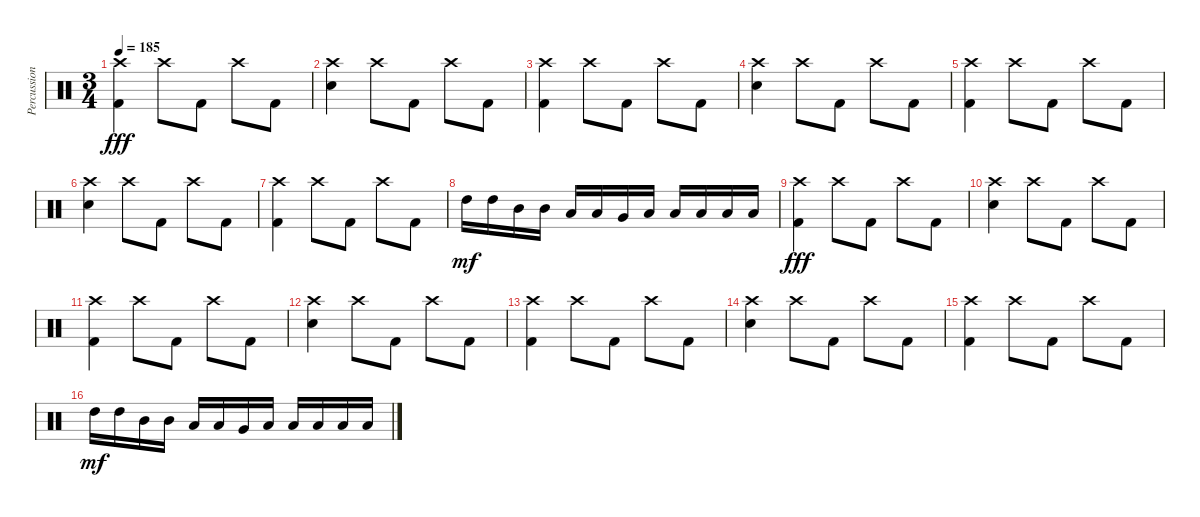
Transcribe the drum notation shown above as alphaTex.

\track ("Percussion" "Percussion") {instrument percussion}
\staff {score}
\articulation defaults
\ts (3 4)
\tempo 185
\clef neutral
\ks c
("Crash high (hit)" "Kick (hit) 2").4{dy fff} "Crash high (hit)".8 "Kick (hit) 2".8 "Crash high (hit)".8 "Kick (hit) 2".8 |
("Crash high (hit)" "Electric Snare (hit)").4 "Crash high (hit)".8 "Kick (hit) 2".8 "Crash high (hit)".8 "Kick (hit) 2".8 |
("Crash high (hit)" "Kick (hit) 2").4 "Crash high (hit)".8 "Kick (hit) 2".8 "Crash high (hit)".8 "Kick (hit) 2".8 |
("Crash high (hit)" "Electric Snare (hit)").4 "Crash high (hit)".8 "Kick (hit) 2".8 "Crash high (hit)".8 "Kick (hit) 2".8 |
("Crash high (hit)" "Kick (hit) 2").4 "Crash high (hit)".8 "Kick (hit) 2".8 "Crash high (hit)".8 "Kick (hit) 2".8 |
("Crash high (hit)" "Electric Snare (hit)").4 "Crash high (hit)".8 "Kick (hit) 2".8 "Crash high (hit)".8 "Kick (hit) 2".8 |
("Crash high (hit)" "Kick (hit) 2").4 "Crash high (hit)".8 "Kick (hit) 2".8 "Crash high (hit)".8 "Kick (hit) 2".8 |
"High Tom (hit)".16{dy mf} "High Tom (hit)".16 "Mid Tom (hit)".16 "Mid Tom (hit)".16 "Low Tom (hit)".16 "Low Tom (hit)".16 "Very Low Tom (hit)".16 "Low Floor Tom (hit)".16 "Low Floor Tom (hit)".16 "Low Floor Tom (hit)".16 "Low Floor Tom (hit)".16 "Low Floor Tom (hit)".16 |
("Crash high (hit)" "Kick (hit) 2").4{dy fff} "Crash high (hit)".8 "Kick (hit) 2".8 "Crash high (hit)".8 "Kick (hit) 2".8 |
("Crash high (hit)" "Electric Snare (hit)").4 "Crash high (hit)".8 "Kick (hit) 2".8 "Crash high (hit)".8 "Kick (hit) 2".8 |
("Crash high (hit)" "Kick (hit) 2").4 "Crash high (hit)".8 "Kick (hit) 2".8 "Crash high (hit)".8 "Kick (hit) 2".8 |
("Crash high (hit)" "Electric Snare (hit)").4 "Crash high (hit)".8 "Kick (hit) 2".8 "Crash high (hit)".8 "Kick (hit) 2".8 |
("Crash high (hit)" "Kick (hit) 2").4 "Crash high (hit)".8 "Kick (hit) 2".8 "Crash high (hit)".8 "Kick (hit) 2".8 |
("Crash high (hit)" "Electric Snare (hit)").4 "Crash high (hit)".8 "Kick (hit) 2".8 "Crash high (hit)".8 "Kick (hit) 2".8 |
("Crash high (hit)" "Kick (hit) 2").4 "Crash high (hit)".8 "Kick (hit) 2".8 "Crash high (hit)".8 "Kick (hit) 2".8 |
"High Tom (hit)".16{dy mf} "High Tom (hit)".16 "Mid Tom (hit)".16 "Mid Tom (hit)".16 "Low Tom (hit)".16 "Low Tom (hit)".16 "Very Low Tom (hit)".16 "Low Floor Tom (hit)".16 "Low Floor Tom (hit)".16 "Low Floor Tom (hit)".16 "Low Floor Tom (hit)".16 "Low Floor Tom (hit)".16
